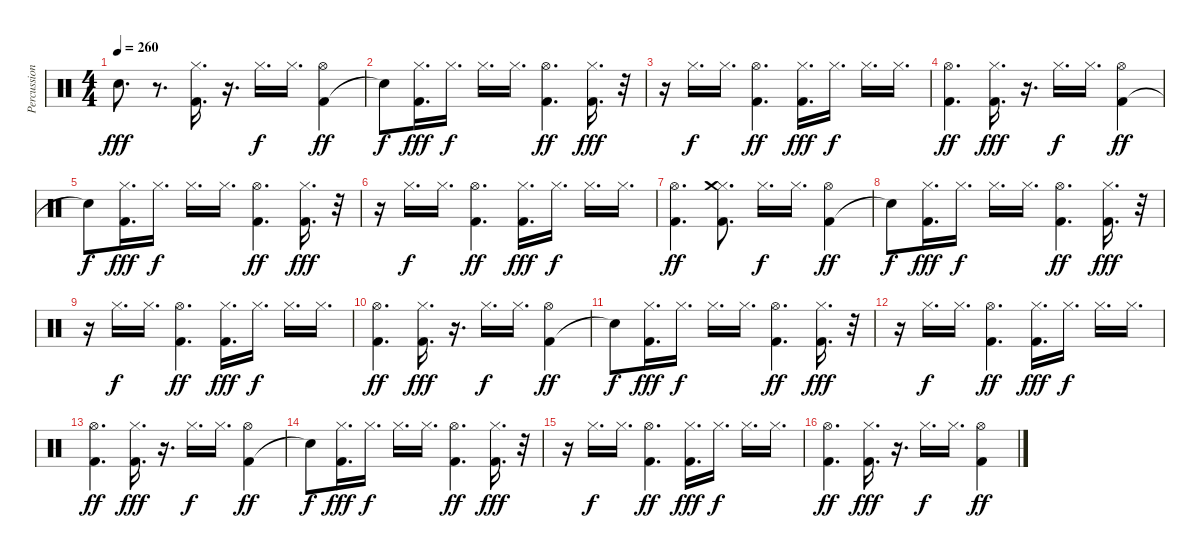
\track ("Percussion" "Percussion") {instrument percussion}
\staff {score}
\articulation defaults
\ts (4 4)
\tempo 260
\clef neutral
\ks c "Electric Snare (hit)".8{d dy fff}
r.8{d} ("Kick (hit) 2" "Hi-Hat (closed)").16{d} r.16{d} "Hi-Hat (closed)".16{d dy f} "Hi-Hat (closed)".16{d} ("Kick (hit) 2" "Hi-Hat (open)").4{dy ff} |
"Snare (hit)"{t}.8{dy f} ("Kick (hit) 2" "Hi-Hat (closed)").16{d dy fff} "Hi-Hat (closed)".16{d dy f} "Hi-Hat (closed)".16{d} "Hi-Hat (closed)".16{d} ("Kick (hit) 2" "Hi-Hat (open)").4{d dy ff} ("Kick (hit) 2" "Hi-Hat (closed)").16{d dy fff} r.32 |
r.16 "Hi-Hat (closed)".16{d dy f} "Hi-Hat (closed)".16{d} ("Kick (hit) 2" "Hi-Hat (open)").4{d dy ff} ("Kick (hit) 2" "Hi-Hat (closed)").16{d dy fff} "Hi-Hat (closed)".16{d dy f} "Hi-Hat (closed)".16{d} "Hi-Hat (closed)".16{d} |
("Kick (hit) 2" "Hi-Hat (open)").4{d dy ff} ("Kick (hit) 2" "Hi-Hat (closed)").16{d dy fff} r.16{d} "Hi-Hat (closed)".16{d dy f} "Hi-Hat (closed)".16{d} ("Kick (hit) 2" "Hi-Hat (open)").4{dy ff} |
"Snare (hit)"{t}.8{dy f} ("Kick (hit) 2" "Hi-Hat (closed)").16{d dy fff} "Hi-Hat (closed)".16{d dy f} "Hi-Hat (closed)".16{d} "Hi-Hat (closed)".16{d} ("Kick (hit) 2" "Hi-Hat (open)").4{d dy ff} ("Kick (hit) 2" "Hi-Hat (closed)").16{d dy fff} r.32 |
r.16 "Hi-Hat (closed)".16{d dy f} "Hi-Hat (closed)".16{d} ("Kick (hit) 2" "Hi-Hat (open)").4{d dy ff} ("Kick (hit) 2" "Hi-Hat (closed)").16{d dy fff} "Hi-Hat (closed)".16{d dy f} "Hi-Hat (closed)".16{d} "Hi-Hat (closed)".16{d} |
("Kick (hit) 2" "Hi-Hat (open)").4{d dy ff} ("Kick (hit) 2" "Hi-Hat (closed)" "Crash medium (hit)").8{d} "Hi-Hat (closed)".16{d dy f} "Hi-Hat (closed)".16{d} ("Kick (hit) 2" "Hi-Hat (open)").4{dy ff} |
"Snare (hit)"{t}.8{dy f} ("Kick (hit) 2" "Hi-Hat (closed)").16{d dy fff} "Hi-Hat (closed)".16{d dy f} "Hi-Hat (closed)".16{d} "Hi-Hat (closed)".16{d} ("Kick (hit) 2" "Hi-Hat (open)").4{d dy ff} ("Kick (hit) 2" "Hi-Hat (closed)").16{d dy fff} r.32 |
r.16 "Hi-Hat (closed)".16{d dy f} "Hi-Hat (closed)".16{d} ("Kick (hit) 2" "Hi-Hat (open)").4{d dy ff} ("Kick (hit) 2" "Hi-Hat (closed)").16{d dy fff} "Hi-Hat (closed)".16{d dy f} "Hi-Hat (closed)".16{d} "Hi-Hat (closed)".16{d} |
("Kick (hit) 2" "Hi-Hat (open)").4{d dy ff} ("Kick (hit) 2" "Hi-Hat (closed)").16{d dy fff} r.16{d} "Hi-Hat (closed)".16{d dy f} "Hi-Hat (closed)".16{d} ("Kick (hit) 2" "Hi-Hat (open)").4{dy ff} |
"Snare (hit)"{t}.8{dy f} ("Kick (hit) 2" "Hi-Hat (closed)").16{d dy fff} "Hi-Hat (closed)".16{d dy f} "Hi-Hat (closed)".16{d} "Hi-Hat (closed)".16{d} ("Kick (hit) 2" "Hi-Hat (open)").4{d dy ff} ("Kick (hit) 2" "Hi-Hat (closed)").16{d dy fff} r.32 |
r.16 "Hi-Hat (closed)".16{d dy f} "Hi-Hat (closed)".16{d} ("Kick (hit) 2" "Hi-Hat (open)").4{d dy ff} ("Kick (hit) 2" "Hi-Hat (closed)").16{d dy fff} "Hi-Hat (closed)".16{d dy f} "Hi-Hat (closed)".16{d} "Hi-Hat (closed)".16{d} |
("Kick (hit) 2" "Hi-Hat (open)").4{d dy ff} ("Kick (hit) 2" "Hi-Hat (closed)").16{d dy fff} r.16{d} "Hi-Hat (closed)".16{d dy f} "Hi-Hat (closed)".16{d} ("Kick (hit) 2" "Hi-Hat (open)").4{dy ff} |
"Snare (hit)"{t}.8{dy f} ("Kick (hit) 2" "Hi-Hat (closed)").16{d dy fff} "Hi-Hat (closed)".16{d dy f} "Hi-Hat (closed)".16{d} "Hi-Hat (closed)".16{d} ("Kick (hit) 2" "Hi-Hat (open)").4{d dy ff} ("Kick (hit) 2" "Hi-Hat (closed)").16{d dy fff} r.32 |
r.16 "Hi-Hat (closed)".16{d dy f} "Hi-Hat (closed)".16{d} ("Kick (hit) 2" "Hi-Hat (open)").4{d dy ff} ("Kick (hit) 2" "Hi-Hat (closed)").16{d dy fff} "Hi-Hat (closed)".16{d dy f} "Hi-Hat (closed)".16{d} "Hi-Hat (closed)".16{d} |
("Kick (hit) 2" "Hi-Hat (open)").4{d dy ff} ("Kick (hit) 2" "Hi-Hat (closed)").16{d dy fff} r.16{d} "Hi-Hat (closed)".16{d dy f} "Hi-Hat (closed)".16{d} ("Kick (hit) 2" "Hi-Hat (open)").4{dy ff}
